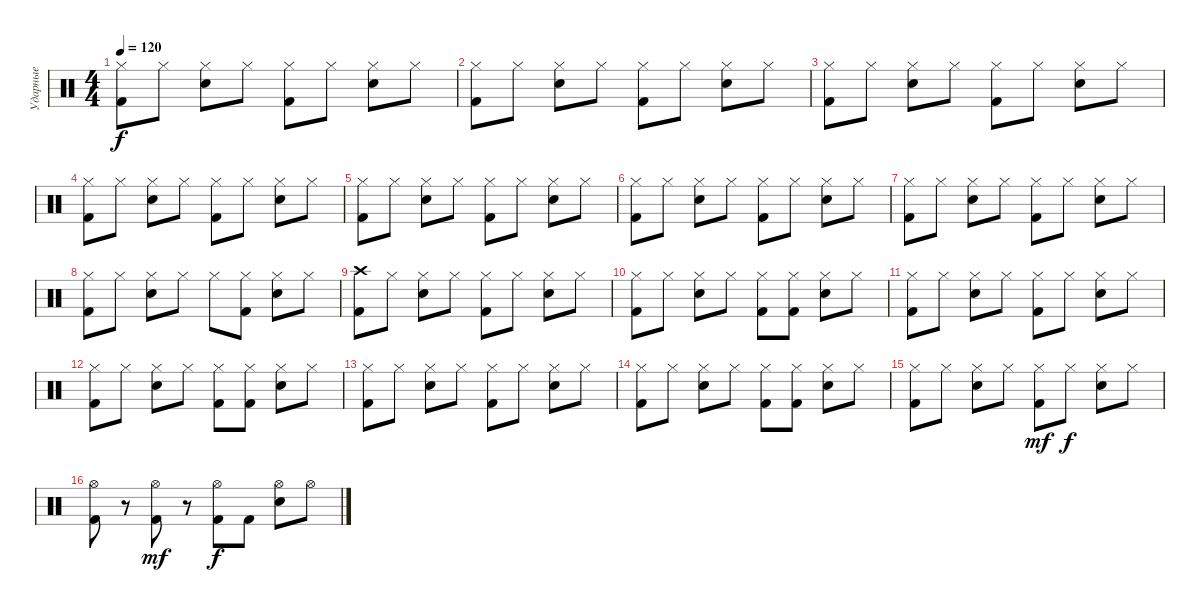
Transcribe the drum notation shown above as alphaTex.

\track ("Ударные" "Ударные") {instrument percussion}
\staff {score}
\articulation defaults
\ts (4 4)
\tempo 120
\clef neutral
\ks c
("Hi-Hat (closed)" "Kick (hit) 2").8{dy f} "Hi-Hat (closed)".8 ("Hi-Hat (closed)" "Electric Snare (hit)").8 "Hi-Hat (closed)".8 ("Hi-Hat (closed)" "Kick (hit) 2").8 "Hi-Hat (closed)".8 ("Hi-Hat (closed)" "Electric Snare (hit)").8 "Hi-Hat (closed)".8 |
("Hi-Hat (closed)" "Kick (hit) 2").8 "Hi-Hat (closed)".8 ("Hi-Hat (closed)" "Electric Snare (hit)").8 "Hi-Hat (closed)".8 ("Hi-Hat (closed)" "Kick (hit) 2").8 "Hi-Hat (closed)".8 ("Hi-Hat (closed)" "Electric Snare (hit)").8 "Hi-Hat (closed)".8 |
("Hi-Hat (closed)" "Kick (hit) 2").8 "Hi-Hat (closed)".8 ("Hi-Hat (closed)" "Electric Snare (hit)").8 "Hi-Hat (closed)".8 ("Hi-Hat (closed)" "Kick (hit) 2").8 "Hi-Hat (closed)".8 ("Hi-Hat (closed)" "Electric Snare (hit)").8 "Hi-Hat (closed)".8 |
("Hi-Hat (closed)" "Kick (hit) 2").8 "Hi-Hat (closed)".8 ("Hi-Hat (closed)" "Electric Snare (hit)").8 "Hi-Hat (closed)".8 ("Hi-Hat (closed)" "Kick (hit) 2").8 "Hi-Hat (closed)".8 ("Hi-Hat (closed)" "Electric Snare (hit)").8 "Hi-Hat (closed)".8 |
("Hi-Hat (closed)" "Kick (hit) 2").8 "Hi-Hat (closed)".8 ("Hi-Hat (closed)" "Electric Snare (hit)").8 "Hi-Hat (closed)".8 ("Hi-Hat (closed)" "Kick (hit) 2").8 "Hi-Hat (closed)".8 ("Hi-Hat (closed)" "Electric Snare (hit)").8 "Hi-Hat (closed)".8 |
("Hi-Hat (closed)" "Kick (hit) 2").8 "Hi-Hat (closed)".8 ("Hi-Hat (closed)" "Electric Snare (hit)").8 "Hi-Hat (closed)".8 ("Hi-Hat (closed)" "Kick (hit) 2").8 "Hi-Hat (closed)".8 ("Hi-Hat (closed)" "Electric Snare (hit)").8 "Hi-Hat (closed)".8 |
("Hi-Hat (closed)" "Kick (hit) 2").8 "Hi-Hat (closed)".8 ("Hi-Hat (closed)" "Electric Snare (hit)").8 "Hi-Hat (closed)".8 ("Hi-Hat (closed)" "Kick (hit) 2").8 "Hi-Hat (closed)".8 ("Hi-Hat (closed)" "Electric Snare (hit)").8 "Hi-Hat (closed)".8 |
("Hi-Hat (closed)" "Kick (hit) 2").8 "Hi-Hat (closed)".8 ("Hi-Hat (closed)" "Electric Snare (hit)").8 "Hi-Hat (closed)".8 "Hi-Hat (closed)".8 ("Hi-Hat (closed)" "Kick (hit) 2").8 ("Hi-Hat (closed)" "Electric Snare (hit)").8 "Hi-Hat (closed)".8 |
("Crash high (hit)" "Kick (hit) 2").8 "Hi-Hat (closed)".8 ("Hi-Hat (closed)" "Electric Snare (hit)").8 "Hi-Hat (closed)".8 ("Hi-Hat (closed)" "Kick (hit) 2").8 "Hi-Hat (closed)".8 ("Hi-Hat (closed)" "Electric Snare (hit)").8 "Hi-Hat (closed)".8 |
("Hi-Hat (closed)" "Kick (hit) 2").8 "Hi-Hat (closed)".8 ("Hi-Hat (closed)" "Electric Snare (hit)").8 "Hi-Hat (closed)".8 ("Hi-Hat (closed)" "Kick (hit) 2").8 ("Hi-Hat (closed)" "Kick (hit) 2").8 ("Hi-Hat (closed)" "Electric Snare (hit)").8 "Hi-Hat (closed)".8 |
("Hi-Hat (closed)" "Kick (hit) 2").8 "Hi-Hat (closed)".8 ("Hi-Hat (closed)" "Electric Snare (hit)").8 "Hi-Hat (closed)".8 ("Hi-Hat (closed)" "Kick (hit) 2").8 "Hi-Hat (closed)".8 ("Hi-Hat (closed)" "Electric Snare (hit)").8 "Hi-Hat (closed)".8 |
("Hi-Hat (closed)" "Kick (hit) 2").8 "Hi-Hat (closed)".8 ("Hi-Hat (closed)" "Electric Snare (hit)").8 "Hi-Hat (closed)".8 ("Hi-Hat (closed)" "Kick (hit) 2").8 ("Hi-Hat (closed)" "Kick (hit) 2").8 ("Hi-Hat (closed)" "Electric Snare (hit)").8 "Hi-Hat (closed)".8 |
("Hi-Hat (closed)" "Kick (hit) 2").8 "Hi-Hat (closed)".8 ("Hi-Hat (closed)" "Electric Snare (hit)").8 "Hi-Hat (closed)".8 ("Hi-Hat (closed)" "Kick (hit) 2").8 "Hi-Hat (closed)".8 ("Hi-Hat (closed)" "Electric Snare (hit)").8 "Hi-Hat (closed)".8 |
("Hi-Hat (closed)" "Kick (hit) 2").8 "Hi-Hat (closed)".8 ("Hi-Hat (closed)" "Electric Snare (hit)").8 "Hi-Hat (closed)".8 ("Hi-Hat (closed)" "Kick (hit) 2").8 ("Hi-Hat (closed)" "Kick (hit) 2").8 ("Hi-Hat (closed)" "Electric Snare (hit)").8 "Hi-Hat (closed)".8 |
("Hi-Hat (closed)" "Kick (hit) 2").8 "Hi-Hat (closed)".8 ("Hi-Hat (closed)" "Electric Snare (hit)").8 "Hi-Hat (closed)".8 ("Hi-Hat (closed)" "Kick (hit) 2").8{dy mf} "Hi-Hat (closed)".8{dy f} ("Hi-Hat (closed)" "Electric Snare (hit)").8 "Hi-Hat (closed)".8 |
("Hi-Hat (open)" "Kick (hit) 2").8 r.8 ("Hi-Hat (open)" "Kick (hit) 2").8{dy mf} r.8 ("Hi-Hat (open)" "Kick (hit) 2").8{dy f} "Kick (hit) 2".8 ("Hi-Hat (open)" "Electric Snare (hit)").8 "Hi-Hat (open)".8
